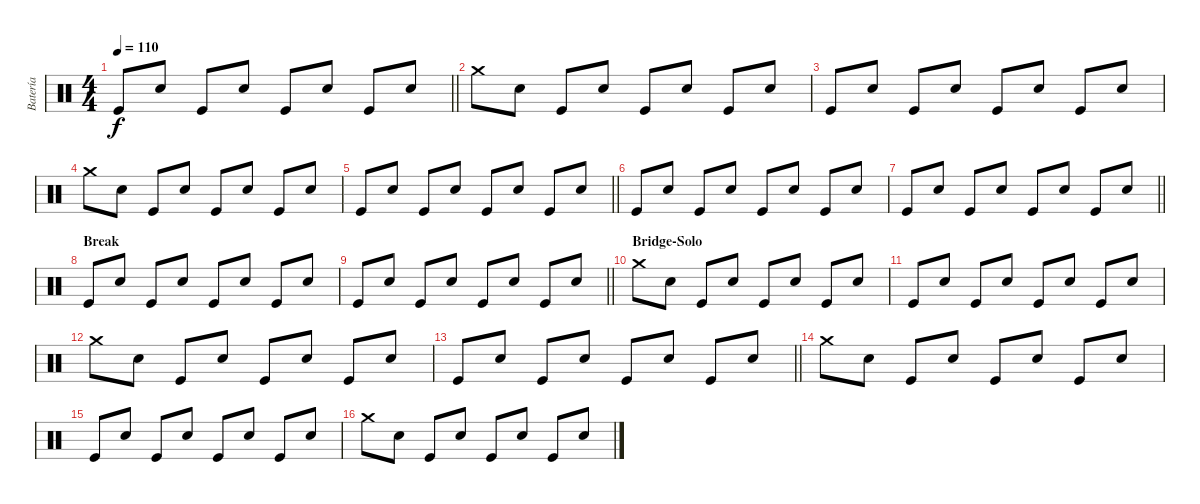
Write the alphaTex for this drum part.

\track ("Batería" "Batería") {instrument percussion}
\staff {score}
\articulation defaults
\ts (4 4)
\tempo 110
\clef neutral
\barLineRight lightlight
\ks c "Kick (hit)".8{dy f} "Electric Snare (hit)".8 "Kick (hit)".8 "Electric Snare (hit)".8 "Kick (hit)".8 "Electric Snare (hit)".8 "Kick (hit)".8 "Electric Snare (hit)".8
|
\section ("" "")
"Crash medium (hit)".8 "Electric Snare (hit)".8 "Kick (hit)".8 "Electric Snare (hit)".8 "Kick (hit)".8 "Electric Snare (hit)".8 "Kick (hit)".8 "Electric Snare (hit)".8 |
"Kick (hit)".8 "Electric Snare (hit)".8 "Kick (hit)".8 "Electric Snare (hit)".8 "Kick (hit)".8 "Electric Snare (hit)".8 "Kick (hit)".8 "Electric Snare (hit)".8 |
"Crash medium (hit)".8 "Electric Snare (hit)".8 "Kick (hit)".8 "Electric Snare (hit)".8 "Kick (hit)".8 "Electric Snare (hit)".8 "Kick (hit)".8 "Electric Snare (hit)".8 |
\barLineRight lightlight "Kick (hit)".8 "Electric Snare (hit)".8 "Kick (hit)".8 "Electric Snare (hit)".8 "Kick (hit)".8 "Electric Snare (hit)".8 "Kick (hit)".8 "Electric Snare (hit)".8
|
"Kick (hit)".8 "Electric Snare (hit)".8 "Kick (hit)".8 "Electric Snare (hit)".8 "Kick (hit)".8 "Electric Snare (hit)".8 "Kick (hit)".8 "Electric Snare (hit)".8 |
\barLineRight lightlight "Kick (hit)".8 "Electric Snare (hit)".8 "Kick (hit)".8 "Electric Snare (hit)".8 "Kick (hit)".8 "Electric Snare (hit)".8 "Kick (hit)".8 "Electric Snare (hit)".8
|
\section ("" "Break")
"Kick (hit)".8 "Electric Snare (hit)".8 "Kick (hit)".8 "Electric Snare (hit)".8 "Kick (hit)".8 "Electric Snare (hit)".8 "Kick (hit)".8 "Electric Snare (hit)".8 |
\barLineRight lightlight "Kick (hit)".8 "Electric Snare (hit)".8 "Kick (hit)".8 "Electric Snare (hit)".8 "Kick (hit)".8 "Electric Snare (hit)".8 "Kick (hit)".8 "Electric Snare (hit)".8
|
\section ("" "Bridge-Solo")
"Crash medium (hit)".8 "Electric Snare (hit)".8 "Kick (hit)".8 "Electric Snare (hit)".8 "Kick (hit)".8 "Electric Snare (hit)".8 "Kick (hit)".8 "Electric Snare (hit)".8 |
"Kick (hit)".8 "Electric Snare (hit)".8 "Kick (hit)".8 "Electric Snare (hit)".8 "Kick (hit)".8 "Electric Snare (hit)".8 "Kick (hit)".8 "Electric Snare (hit)".8 |
"Crash medium (hit)".8 "Electric Snare (hit)".8 "Kick (hit)".8 "Electric Snare (hit)".8 "Kick (hit)".8 "Electric Snare (hit)".8 "Kick (hit)".8 "Electric Snare (hit)".8 |
\barLineRight lightlight "Kick (hit)".8 "Electric Snare (hit)".8 "Kick (hit)".8 "Electric Snare (hit)".8 "Kick (hit)".8 "Electric Snare (hit)".8 "Kick (hit)".8 "Electric Snare (hit)".8
|
"Crash medium (hit)".8 "Electric Snare (hit)".8 "Kick (hit)".8 "Electric Snare (hit)".8 "Kick (hit)".8 "Electric Snare (hit)".8 "Kick (hit)".8 "Electric Snare (hit)".8 |
"Kick (hit)".8 "Electric Snare (hit)".8 "Kick (hit)".8 "Electric Snare (hit)".8 "Kick (hit)".8 "Electric Snare (hit)".8 "Kick (hit)".8 "Electric Snare (hit)".8 |
"Crash medium (hit)".8 "Electric Snare (hit)".8 "Kick (hit)".8 "Electric Snare (hit)".8 "Kick (hit)".8 "Electric Snare (hit)".8 "Kick (hit)".8 "Electric Snare (hit)".8
